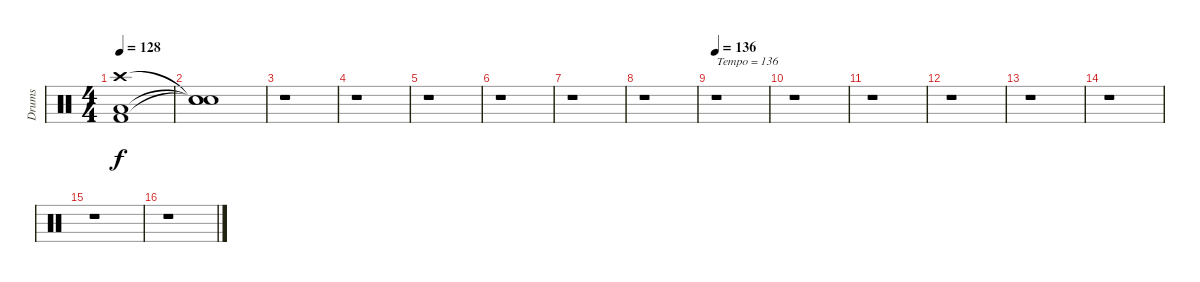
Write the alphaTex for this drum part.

\track ("Drums" "Drums") {instrument percussion}
\staff {score}
\articulation defaults
\ts (4 4)
\tempo 128
\clef neutral
\ks c
("Crash high (hit)" "Low Floor Tom (hit)" "Kick (hit) 2").1{dy f} |
("Snare (hit)"{t} "Snare (hit)"{t} "Snare (hit)"{t}).1 |
r.1 |
r.1 |
r.1 |
r.1 |
r.1 |
r.1 |
\tempo 136
r.1{txt "Tempo = 136"} |
r.1 |
r.1 |
r.1 |
r.1 |
r.1 |
r.1 |
r.1
